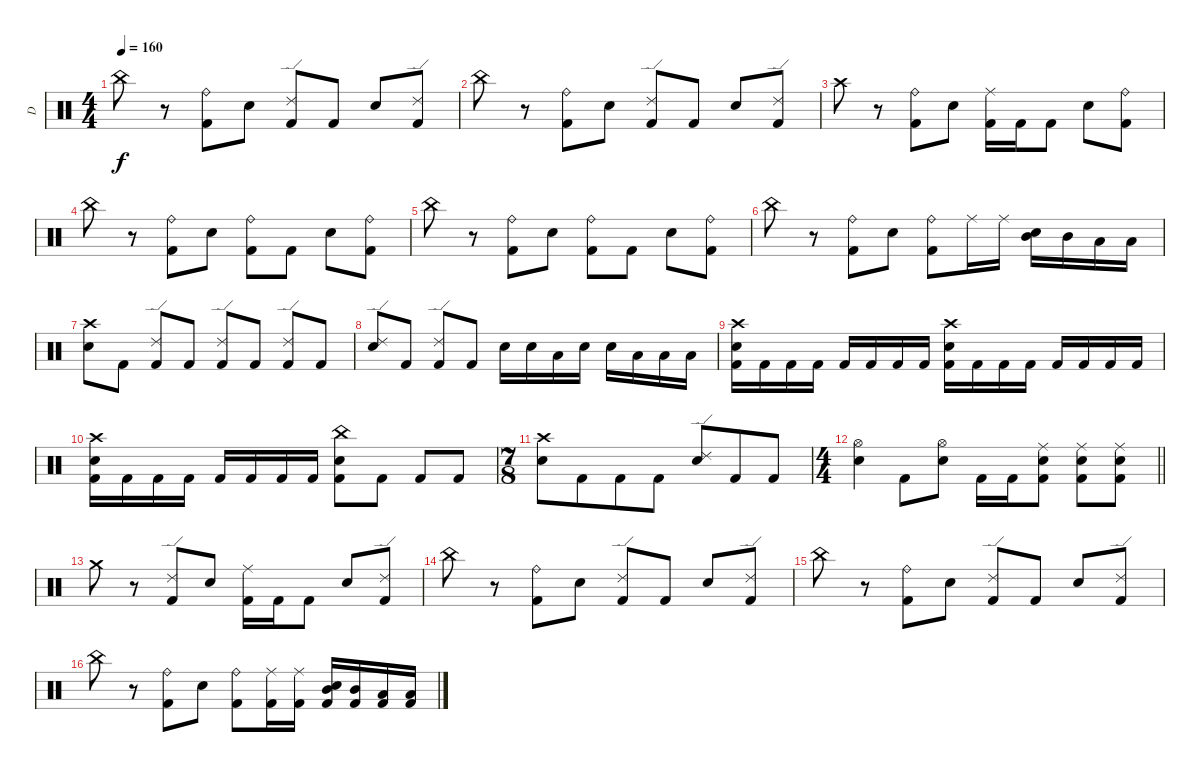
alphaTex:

\track ("D" "D") {instrument percussion}
\staff {score}
\articulation defaults
\ts (4 4)
\tempo 160
\clef neutral
\ks c "China (hit)".8{dy f}
r.8 ("Ride (bell)" "Kick (hit) 2").8 "Electric Snare (hit)".8 ("Ride (edge) 2" "Kick (hit) 2").8 "Kick (hit) 2".8 "Electric Snare (hit)".8 ("Ride (edge) 2" "Kick (hit) 2").8 |
"China (hit)".8 r.8 ("Ride (bell)" "Kick (hit) 2").8 "Electric Snare (hit)".8 ("Ride (edge) 2" "Kick (hit) 2").8 "Kick (hit) 2".8 "Electric Snare (hit)".8 ("Ride (edge) 2" "Kick (hit) 2").8 |
"Crash high (hit)".8 r.8 ("Ride (bell)" "Kick (hit) 2").8 "Electric Snare (hit)".8 ("Ride (middle)" "Kick (hit) 2").16 "Kick (hit) 2".16 "Kick (hit) 2".8 "Electric Snare (hit)".8 ("Ride (bell)" "Kick (hit) 2").8 |
"China (hit)".8 r.8 ("Ride (bell)" "Kick (hit) 2").8 "Electric Snare (hit)".8 ("Ride (bell)" "Kick (hit) 2").8 "Kick (hit) 2".8 "Electric Snare (hit)".8 ("Ride (bell)" "Kick (hit) 2").8 |
"China (hit)".8 r.8 ("Ride (bell)" "Kick (hit) 2").8 "Electric Snare (hit)".8 ("Ride (bell)" "Kick (hit) 2").8 "Kick (hit) 2".8 "Electric Snare (hit)".8 ("Ride (bell)" "Kick (hit) 2").8 |
"China (hit)".8 r.8 ("Ride (bell)" "Kick (hit) 2").8 "Electric Snare (hit)".8 ("Ride (bell)" "Kick (hit) 2").8 "Ride (middle)".16 "Ride (middle)".16 ("Mid Tom (hit)" "Electric Snare (hit)").16 "Mid Tom (hit)".16 "Low Tom (hit)".16 "Low Tom (hit)".16 |
("Crash high (hit)" "Electric Snare (hit)").8 "Kick (hit) 2".8 ("Ride (edge) 2" "Kick (hit) 2").8 "Kick (hit) 2".8 ("Ride (edge) 2" "Kick (hit) 2").8 "Kick (hit) 2".8 ("Ride (edge) 2" "Kick (hit) 2").8 "Kick (hit) 2".8 |
("Ride (edge) 2" "Electric Snare (hit)").8 "Kick (hit) 2".8 ("Ride (edge) 2" "Kick (hit) 2").8 "Kick (hit) 2".8 "Electric Snare (hit)".16 "Electric Snare (hit)".16 "Low Floor Tom (hit)".16 "Electric Snare (hit)".16 "Electric Snare (hit)".16 "Low Floor Tom (hit)".16 "Low Floor Tom (hit)".16 "Low Floor Tom (hit)".16 |
("Crash high (hit)" "Electric Snare (hit)" "Kick (hit) 2").16 "Kick (hit) 2".16 "Kick (hit) 2".16 "Kick (hit) 2".16 "Kick (hit) 2".16 "Kick (hit) 2".16 "Kick (hit) 2".16 "Kick (hit) 2".16 ("Crash high (hit)" "Electric Snare (hit)" "Kick (hit) 2").16 "Kick (hit) 2".16 "Kick (hit) 2".16 "Kick (hit) 2".16 "Kick (hit) 2".16 "Kick (hit) 2".16 "Kick (hit) 2".16 "Kick (hit) 2".16 |
("Crash high (hit)" "Electric Snare (hit)" "Kick (hit) 2").16 "Kick (hit) 2".16 "Kick (hit) 2".16 "Kick (hit) 2".16 "Kick (hit) 2".16 "Kick (hit) 2".16 "Kick (hit) 2".16 "Kick (hit) 2".16 ("China (hit)" "Electric Snare (hit)" "Kick (hit) 2").8 "Kick (hit) 2".8 "Kick (hit) 2".8 "Kick (hit) 2".8 |
\ts (7 8)
("Crash high (hit)" "Electric Snare (hit)").8 "Kick (hit) 2".8 "Kick (hit) 2".8 "Kick (hit) 2".8 ("Ride (edge) 2" "Electric Snare (hit)").8 "Kick (hit) 2".8 "Kick (hit) 2".8 |
\ts (4 4)
\barLineRight lightlight
("Hi-Hat (open)" "Electric Snare (hit)").4 "Kick (hit) 2".8 ("Hi-Hat (open)" "Electric Snare (hit)").8 "Kick (hit) 2".16 "Kick (hit) 2".16 ("Ride (middle)" "Electric Snare (hit)" "Kick (hit) 2").8 ("Ride (middle)" "Electric Snare (hit)" "Kick (hit) 2").8 ("Ride (middle)" "Electric Snare (hit)" "Kick (hit) 2").8 |
\section ("" "")
"Crash medium (hit)".8 r.8 ("Ride (edge) 2" "Kick (hit) 2").8 "Electric Snare (hit)".8 ("Ride (middle)" "Kick (hit) 2").16 "Kick (hit) 2".16 "Kick (hit) 2".8 "Electric Snare (hit)".8 ("Ride (edge) 2" "Kick (hit) 2").8 |
"China (hit)".8 r.8 ("Ride (bell)" "Kick (hit) 2").8 "Electric Snare (hit)".8 ("Ride (edge) 2" "Kick (hit) 2").8 "Kick (hit) 2".8 "Electric Snare (hit)".8 ("Ride (edge) 2" "Kick (hit) 2").8 |
"China (hit)".8 r.8 ("Ride (bell)" "Kick (hit) 2").8 "Electric Snare (hit)".8 ("Ride (edge) 2" "Kick (hit) 2").8 "Kick (hit) 2".8 "Electric Snare (hit)".8 ("Ride (edge) 2" "Kick (hit) 2").8 |
"China (hit)".8 r.8 ("Ride (bell)" "Kick (hit) 2").8 "Electric Snare (hit)".8 ("Ride (bell)" "Kick (hit) 2").8 ("Ride (middle)" "Kick (hit) 2").16 ("Ride (middle)" "Kick (hit) 2").16 ("Mid Tom (hit)" "Electric Snare (hit)" "Kick (hit) 2").16 ("Mid Tom (hit)" "Kick (hit) 2").16 ("Low Tom (hit)" "Kick (hit) 2").16 ("Low Tom (hit)" "Kick (hit) 2").16
